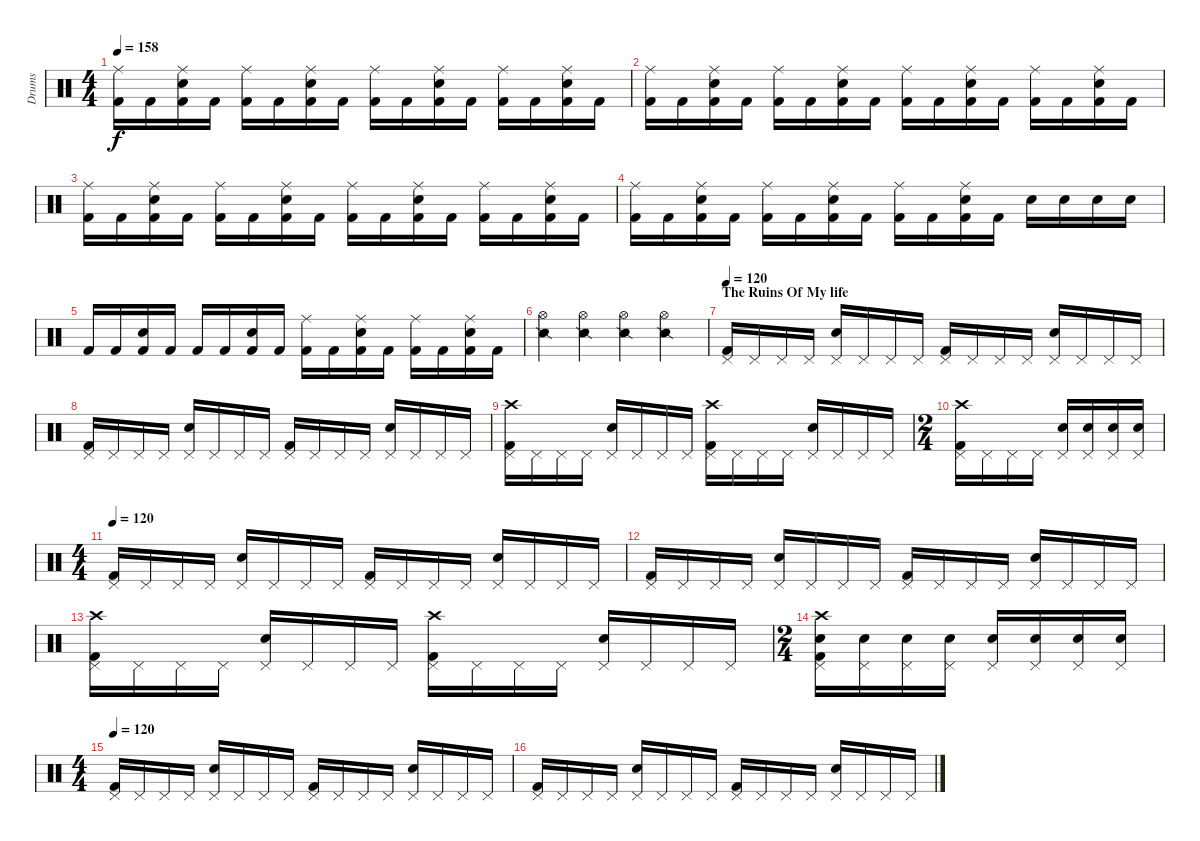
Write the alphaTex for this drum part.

\track ("Drums" "Drums") {instrument percussion}
\staff {score}
\articulation defaults
\ts (4 4)
\tempo 158
\clef neutral
\ks c
("Kick (hit) 2" "Ride (middle)").16{dy f} "Kick (hit) 2".16 ("Electric Snare (hit)" "Kick (hit) 2" "Ride (middle)").16 "Kick (hit) 2".16 ("Kick (hit) 2" "Ride (middle)").16 "Kick (hit) 2".16 ("Electric Snare (hit)" "Kick (hit) 2" "Ride (middle)").16 "Kick (hit) 2".16 ("Kick (hit) 2" "Ride (middle)").16 "Kick (hit) 2".16 ("Electric Snare (hit)" "Kick (hit) 2" "Ride (middle)").16 "Kick (hit) 2".16 ("Kick (hit) 2" "Ride (middle)").16 "Kick (hit) 2".16 ("Electric Snare (hit)" "Kick (hit) 2" "Ride (middle)").16 "Kick (hit) 2".16 |
("Kick (hit) 2" "Ride (middle)").16 "Kick (hit) 2".16 ("Electric Snare (hit)" "Kick (hit) 2" "Ride (middle)").16 "Kick (hit) 2".16 ("Kick (hit) 2" "Ride (middle)").16 "Kick (hit) 2".16 ("Electric Snare (hit)" "Kick (hit) 2" "Ride (middle)").16 "Kick (hit) 2".16 ("Kick (hit) 2" "Ride (middle)").16 "Kick (hit) 2".16 ("Electric Snare (hit)" "Kick (hit) 2" "Ride (middle)").16 "Kick (hit) 2".16 ("Kick (hit) 2" "Ride (middle)").16 "Kick (hit) 2".16 ("Electric Snare (hit)" "Kick (hit) 2" "Ride (middle)").16 "Kick (hit) 2".16 |
("Kick (hit) 2" "Ride (middle)").16 "Kick (hit) 2".16 ("Electric Snare (hit)" "Kick (hit) 2" "Ride (middle)").16 "Kick (hit) 2".16 ("Kick (hit) 2" "Ride (middle)").16 "Kick (hit) 2".16 ("Electric Snare (hit)" "Kick (hit) 2" "Ride (middle)").16 "Kick (hit) 2".16 ("Kick (hit) 2" "Ride (middle)").16 "Kick (hit) 2".16 ("Electric Snare (hit)" "Kick (hit) 2" "Ride (middle)").16 "Kick (hit) 2".16 ("Kick (hit) 2" "Ride (middle)").16 "Kick (hit) 2".16 ("Electric Snare (hit)" "Kick (hit) 2" "Ride (middle)").16 "Kick (hit) 2".16 |
("Kick (hit) 2" "Ride (middle)").16 "Kick (hit) 2".16 ("Electric Snare (hit)" "Kick (hit) 2" "Ride (middle)").16 "Kick (hit) 2".16 ("Kick (hit) 2" "Ride (middle)").16 "Kick (hit) 2".16 ("Electric Snare (hit)" "Kick (hit) 2" "Ride (middle)").16 "Kick (hit) 2".16 ("Kick (hit) 2" "Ride (middle)").16 "Kick (hit) 2".16 ("Electric Snare (hit)" "Kick (hit) 2" "Ride (middle)").16 "Kick (hit) 2".16 "Electric Snare (hit)".16 "Electric Snare (hit)".16 "Electric Snare (hit)".16 "Electric Snare (hit)".16 |
"Kick (hit) 2".16 "Kick (hit) 2".16 ("Electric Snare (hit)" "Kick (hit) 2").16 "Kick (hit) 2".16 "Kick (hit) 2".16 "Kick (hit) 2".16 ("Electric Snare (hit)" "Kick (hit) 2").16 "Kick (hit) 2".16 ("Kick (hit) 2" "Ride (middle)").16 "Kick (hit) 2".16 ("Electric Snare (hit)" "Kick (hit) 2" "Ride (middle)").16 "Kick (hit) 2".16 ("Kick (hit) 2" "Ride (middle)").16 "Kick (hit) 2".16 ("Electric Snare (hit)" "Kick (hit) 2" "Ride (middle)").16 "Kick (hit) 2".16 |
("Snare (side stick) 2" "Hi-Hat (open)").4 ("Snare (side stick) 2" "Hi-Hat (open)").4 ("Snare (side stick) 2" "Hi-Hat (open)").4 ("Snare (side stick) 2" "Hi-Hat (open)").4 |
\section ("" "The Ruins Of My life")
\tempo 120
("Kick (hit) 2" "Pedal Hi-Hat (hit)").16 "Pedal Hi-Hat (hit)".16 "Pedal Hi-Hat (hit)".16 "Pedal Hi-Hat (hit)".16 ("Pedal Hi-Hat (hit)" "Electric Snare (hit)").16 "Pedal Hi-Hat (hit)".16 "Pedal Hi-Hat (hit)".16 "Pedal Hi-Hat (hit)".16 ("Kick (hit) 2" "Pedal Hi-Hat (hit)").16 "Pedal Hi-Hat (hit)".16 "Pedal Hi-Hat (hit)".16 "Pedal Hi-Hat (hit)".16 ("Pedal Hi-Hat (hit)" "Electric Snare (hit)").16 "Pedal Hi-Hat (hit)".16 "Pedal Hi-Hat (hit)".16 "Pedal Hi-Hat (hit)".16 |
("Kick (hit) 2" "Pedal Hi-Hat (hit)").16 "Pedal Hi-Hat (hit)".16 "Pedal Hi-Hat (hit)".16 "Pedal Hi-Hat (hit)".16 ("Pedal Hi-Hat (hit)" "Electric Snare (hit)").16 "Pedal Hi-Hat (hit)".16 "Pedal Hi-Hat (hit)".16 "Pedal Hi-Hat (hit)".16 ("Kick (hit) 2" "Pedal Hi-Hat (hit)").16 "Pedal Hi-Hat (hit)".16 "Pedal Hi-Hat (hit)".16 "Pedal Hi-Hat (hit)".16 ("Pedal Hi-Hat (hit)" "Electric Snare (hit)").16 "Pedal Hi-Hat (hit)".16 "Pedal Hi-Hat (hit)".16 "Pedal Hi-Hat (hit)".16 |
("Kick (hit) 2" "Pedal Hi-Hat (hit)" "Crash high (hit)").16 "Pedal Hi-Hat (hit)".16 "Pedal Hi-Hat (hit)".16 "Pedal Hi-Hat (hit)".16 ("Pedal Hi-Hat (hit)" "Electric Snare (hit)").16 "Pedal Hi-Hat (hit)".16 "Pedal Hi-Hat (hit)".16 "Pedal Hi-Hat (hit)".16 ("Kick (hit) 2" "Pedal Hi-Hat (hit)" "Crash high (hit)").16 "Pedal Hi-Hat (hit)".16 "Pedal Hi-Hat (hit)".16 "Pedal Hi-Hat (hit)".16 ("Pedal Hi-Hat (hit)" "Electric Snare (hit)").16 "Pedal Hi-Hat (hit)".16 "Pedal Hi-Hat (hit)".16 "Pedal Hi-Hat (hit)".16 |
\ts (2 4)
("Kick (hit) 2" "Pedal Hi-Hat (hit)" "Crash high (hit)").16 "Pedal Hi-Hat (hit)".16 "Pedal Hi-Hat (hit)".16 "Pedal Hi-Hat (hit)".16 ("Pedal Hi-Hat (hit)" "Electric Snare (hit)").16 ("Pedal Hi-Hat (hit)" "Electric Snare (hit)").16 ("Pedal Hi-Hat (hit)" "Electric Snare (hit)").16 ("Pedal Hi-Hat (hit)" "Electric Snare (hit)").16 |
\ts (4 4)
\tempo 120
("Kick (hit) 2" "Pedal Hi-Hat (hit)").16 "Pedal Hi-Hat (hit)".16 "Pedal Hi-Hat (hit)".16 "Pedal Hi-Hat (hit)".16 ("Pedal Hi-Hat (hit)" "Electric Snare (hit)").16 "Pedal Hi-Hat (hit)".16 "Pedal Hi-Hat (hit)".16 "Pedal Hi-Hat (hit)".16 ("Kick (hit) 2" "Pedal Hi-Hat (hit)").16 "Pedal Hi-Hat (hit)".16 "Pedal Hi-Hat (hit)".16 "Pedal Hi-Hat (hit)".16 ("Pedal Hi-Hat (hit)" "Electric Snare (hit)").16 "Pedal Hi-Hat (hit)".16 "Pedal Hi-Hat (hit)".16 "Pedal Hi-Hat (hit)".16 |
("Kick (hit) 2" "Pedal Hi-Hat (hit)").16 "Pedal Hi-Hat (hit)".16 "Pedal Hi-Hat (hit)".16 "Pedal Hi-Hat (hit)".16 ("Pedal Hi-Hat (hit)" "Electric Snare (hit)").16 "Pedal Hi-Hat (hit)".16 "Pedal Hi-Hat (hit)".16 "Pedal Hi-Hat (hit)".16 ("Kick (hit) 2" "Pedal Hi-Hat (hit)").16 "Pedal Hi-Hat (hit)".16 "Pedal Hi-Hat (hit)".16 "Pedal Hi-Hat (hit)".16 ("Pedal Hi-Hat (hit)" "Electric Snare (hit)").16 "Pedal Hi-Hat (hit)".16 "Pedal Hi-Hat (hit)".16 "Pedal Hi-Hat (hit)".16 |
("Kick (hit) 2" "Pedal Hi-Hat (hit)" "Crash high (hit)").16 "Pedal Hi-Hat (hit)".16 "Pedal Hi-Hat (hit)".16 "Pedal Hi-Hat (hit)".16 ("Pedal Hi-Hat (hit)" "Electric Snare (hit)").16 "Pedal Hi-Hat (hit)".16 "Pedal Hi-Hat (hit)".16 "Pedal Hi-Hat (hit)".16 ("Kick (hit) 2" "Pedal Hi-Hat (hit)" "Crash high (hit)").16 "Pedal Hi-Hat (hit)".16 "Pedal Hi-Hat (hit)".16 "Pedal Hi-Hat (hit)".16 ("Pedal Hi-Hat (hit)" "Electric Snare (hit)").16 "Pedal Hi-Hat (hit)".16 "Pedal Hi-Hat (hit)".16 "Pedal Hi-Hat (hit)".16 |
\ts (2 4)
("Kick (hit) 2" "Pedal Hi-Hat (hit)" "Electric Snare (hit)" "Crash high (hit)").16 ("Pedal Hi-Hat (hit)" "Electric Snare (hit)").16 ("Pedal Hi-Hat (hit)" "Electric Snare (hit)").16 ("Pedal Hi-Hat (hit)" "Electric Snare (hit)").16 ("Pedal Hi-Hat (hit)" "Electric Snare (hit)").16 ("Pedal Hi-Hat (hit)" "Electric Snare (hit)").16 ("Pedal Hi-Hat (hit)" "Electric Snare (hit)").16 ("Pedal Hi-Hat (hit)" "Electric Snare (hit)").16 |
\ts (4 4)
\tempo 120
("Kick (hit) 2" "Pedal Hi-Hat (hit)").16 "Pedal Hi-Hat (hit)".16 "Pedal Hi-Hat (hit)".16 "Pedal Hi-Hat (hit)".16 ("Pedal Hi-Hat (hit)" "Electric Snare (hit)").16 "Pedal Hi-Hat (hit)".16 "Pedal Hi-Hat (hit)".16 "Pedal Hi-Hat (hit)".16 ("Kick (hit) 2" "Pedal Hi-Hat (hit)").16 "Pedal Hi-Hat (hit)".16 "Pedal Hi-Hat (hit)".16 "Pedal Hi-Hat (hit)".16 ("Pedal Hi-Hat (hit)" "Electric Snare (hit)").16 "Pedal Hi-Hat (hit)".16 "Pedal Hi-Hat (hit)".16 "Pedal Hi-Hat (hit)".16 |
("Kick (hit) 2" "Pedal Hi-Hat (hit)").16 "Pedal Hi-Hat (hit)".16 "Pedal Hi-Hat (hit)".16 "Pedal Hi-Hat (hit)".16 ("Pedal Hi-Hat (hit)" "Electric Snare (hit)").16 "Pedal Hi-Hat (hit)".16 "Pedal Hi-Hat (hit)".16 "Pedal Hi-Hat (hit)".16 ("Kick (hit) 2" "Pedal Hi-Hat (hit)").16 "Pedal Hi-Hat (hit)".16 "Pedal Hi-Hat (hit)".16 "Pedal Hi-Hat (hit)".16 ("Pedal Hi-Hat (hit)" "Electric Snare (hit)").16 "Pedal Hi-Hat (hit)".16 "Pedal Hi-Hat (hit)".16 "Pedal Hi-Hat (hit)".16
